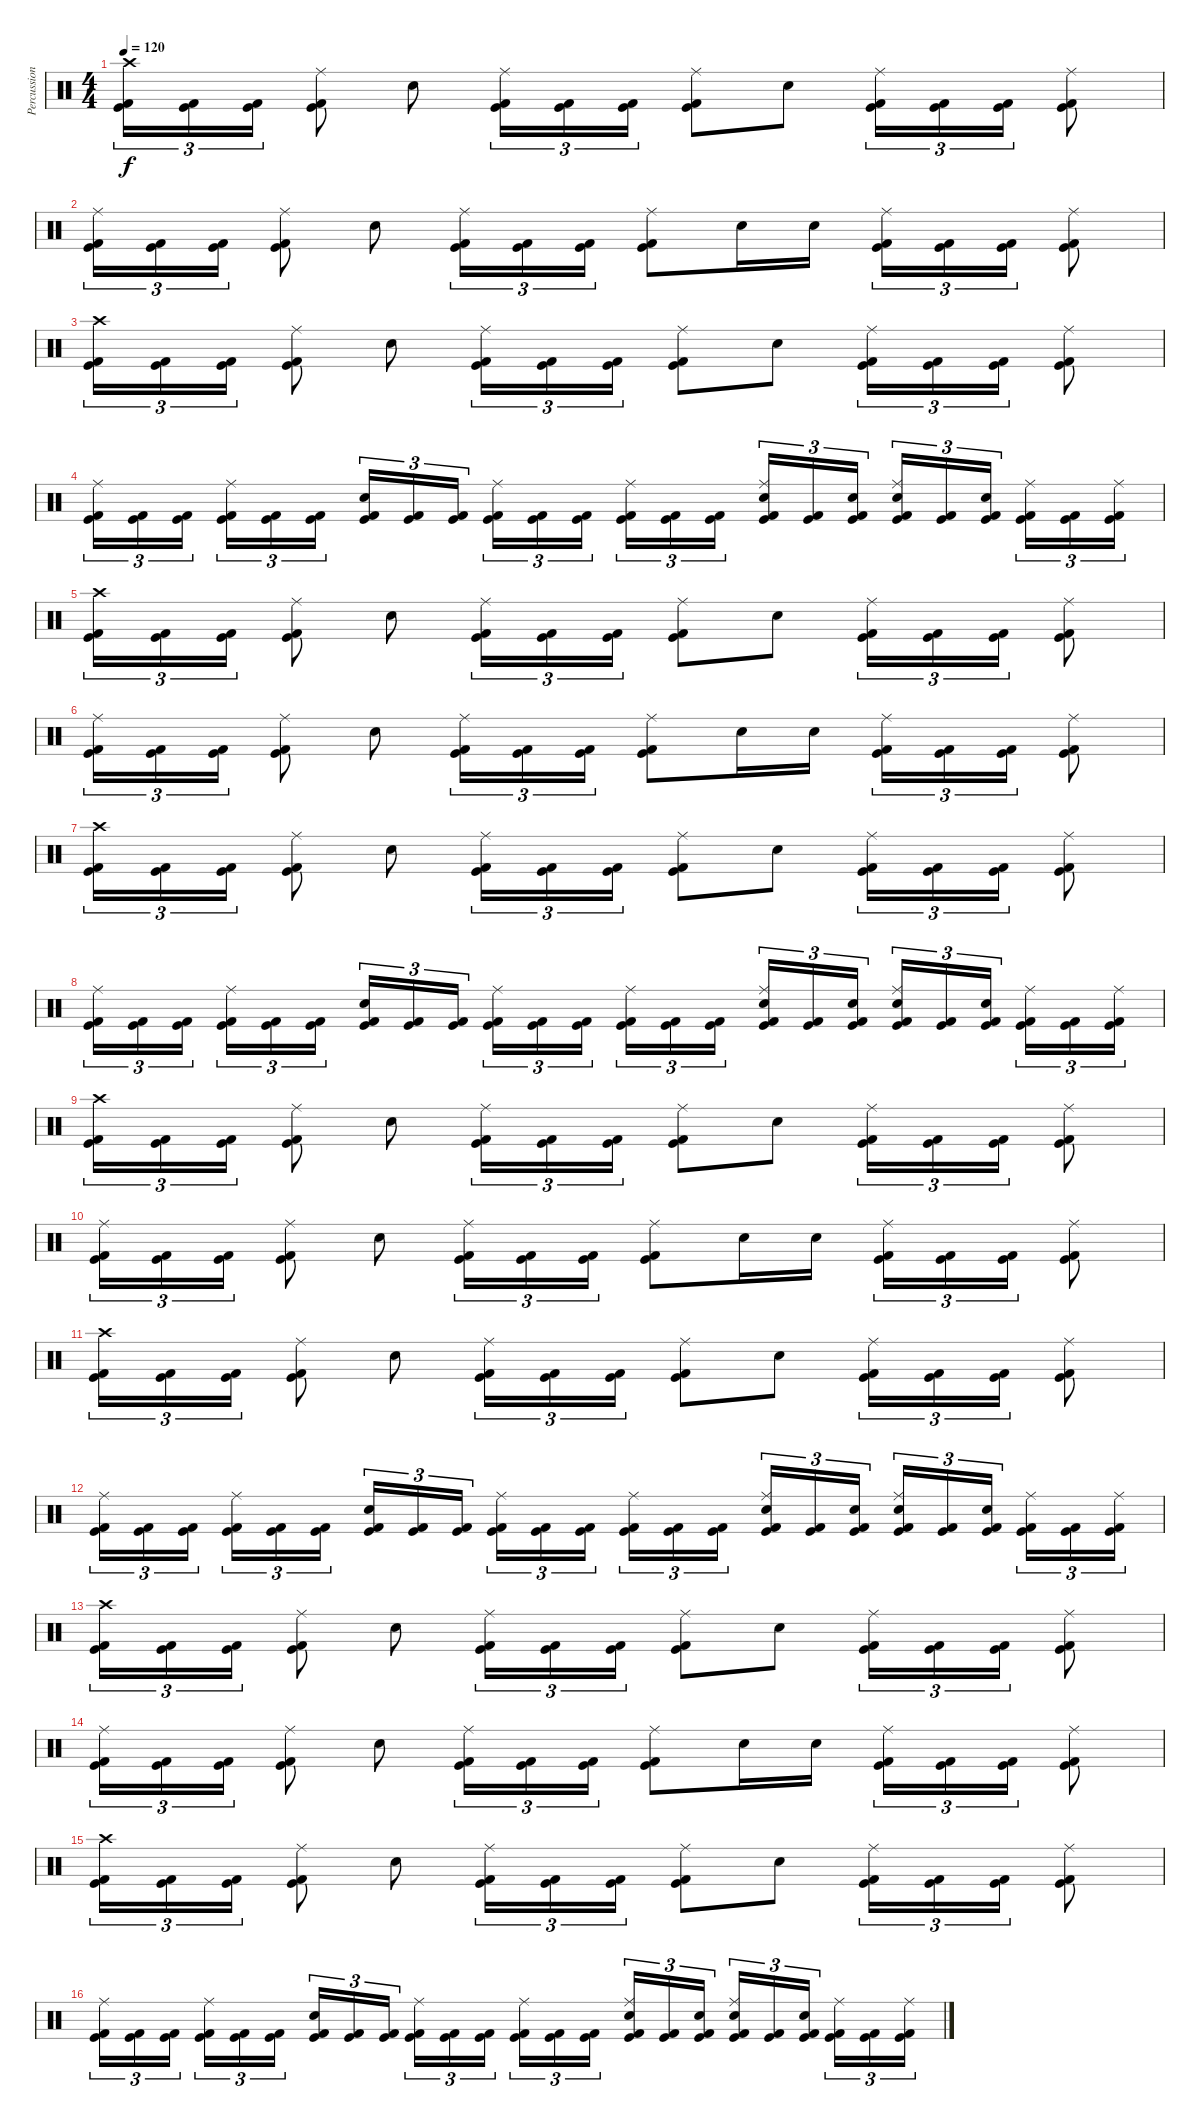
\track ("Percussion" "Percussion") {instrument percussion}
\staff {score}
\articulation defaults
\ts (4 4)
\tempo 120
\clef neutral
\ks c
("Crash high (hit)" "Kick (hit) 2" "Kick (hit)").16{tu (3 2) dy f} ("Kick (hit) 2" "Kick (hit)").16{tu (3 2)} ("Kick (hit) 2" "Kick (hit)").16{tu (3 2)} ("Ride (middle)" "Kick (hit) 2" "Kick (hit)").8 "Snare (hit) 2".8 ("Ride (middle)" "Kick (hit) 2" "Kick (hit)").16{tu (3 2)} ("Kick (hit) 2" "Kick (hit)").16{tu (3 2)} ("Kick (hit) 2" "Kick (hit)").16{tu (3 2)} ("Ride (middle)" "Kick (hit) 2" "Kick (hit)").8 "Snare (hit) 2".8 ("Ride (middle)" "Kick (hit) 2" "Kick (hit)").16{tu (3 2)} ("Kick (hit) 2" "Kick (hit)").16{tu (3 2)} ("Kick (hit) 2" "Kick (hit)").16{tu (3 2)} ("Ride (middle)" "Kick (hit) 2" "Kick (hit)").8 |
("Ride (middle)" "Kick (hit) 2" "Kick (hit)").16{tu (3 2)} ("Kick (hit) 2" "Kick (hit)").16{tu (3 2)} ("Kick (hit) 2" "Kick (hit)").16{tu (3 2)} ("Ride (middle)" "Kick (hit) 2" "Kick (hit)").8 "Snare (hit) 2".8 ("Ride (middle)" "Kick (hit) 2" "Kick (hit)").16{tu (3 2)} ("Kick (hit) 2" "Kick (hit)").16{tu (3 2)} ("Kick (hit) 2" "Kick (hit)").16{tu (3 2)} ("Ride (middle)" "Kick (hit) 2" "Kick (hit)").8 "Snare (hit) 2".16 "Snare (hit) 2".16 ("Ride (middle)" "Kick (hit) 2" "Kick (hit)").16{tu (3 2)} ("Kick (hit) 2" "Kick (hit)").16{tu (3 2)} ("Kick (hit) 2" "Kick (hit)").16{tu (3 2)} ("Ride (middle)" "Kick (hit) 2" "Kick (hit)").8 |
("Crash high (hit)" "Kick (hit) 2" "Kick (hit)").16{tu (3 2)} ("Kick (hit) 2" "Kick (hit)").16{tu (3 2)} ("Kick (hit) 2" "Kick (hit)").16{tu (3 2)} ("Ride (middle)" "Kick (hit) 2" "Kick (hit)").8 "Snare (hit) 2".8 ("Ride (middle)" "Kick (hit) 2" "Kick (hit)").16{tu (3 2)} ("Kick (hit) 2" "Kick (hit)").16{tu (3 2)} ("Kick (hit) 2" "Kick (hit)").16{tu (3 2)} ("Ride (middle)" "Kick (hit) 2" "Kick (hit)").8 "Snare (hit) 2".8 ("Ride (middle)" "Kick (hit) 2" "Kick (hit)").16{tu (3 2)} ("Kick (hit) 2" "Kick (hit)").16{tu (3 2)} ("Kick (hit) 2" "Kick (hit)").16{tu (3 2)} ("Ride (middle)" "Kick (hit) 2" "Kick (hit)").8 |
("Ride (middle)" "Kick (hit) 2" "Kick (hit)").16{tu (3 2)} ("Kick (hit) 2" "Kick (hit)").16{tu (3 2)} ("Kick (hit) 2" "Kick (hit)").16{tu (3 2)} ("Ride (middle)" "Kick (hit) 2" "Kick (hit)").16{tu (3 2)} ("Kick (hit) 2" "Kick (hit)").16{tu (3 2)} ("Kick (hit) 2" "Kick (hit)").16{tu (3 2)} ("Snare (hit) 2" "Kick (hit) 2" "Kick (hit)").16{tu (3 2)} ("Kick (hit) 2" "Kick (hit)").16{tu (3 2)} ("Kick (hit) 2" "Kick (hit)").16{tu (3 2)} ("Ride (middle)" "Kick (hit) 2" "Kick (hit)").16{tu (3 2)} ("Kick (hit) 2" "Kick (hit)").16{tu (3 2)} ("Kick (hit) 2" "Kick (hit)").16{tu (3 2)} ("Ride (middle)" "Kick (hit) 2" "Kick (hit)").16{tu (3 2)} ("Kick (hit) 2" "Kick (hit)").16{tu (3 2)} ("Kick (hit) 2" "Kick (hit)").16{tu (3 2)} ("Ride (middle)" "Snare (hit) 2" "Kick (hit) 2" "Kick (hit)").16{tu (3 2)} ("Kick (hit) 2" "Kick (hit)").16{tu (3 2)} ("Snare (hit) 2" "Kick (hit) 2" "Kick (hit)").16{tu (3 2)} ("Ride (middle)" "Snare (hit) 2" "Kick (hit) 2" "Kick (hit)").16{tu (3 2)} ("Kick (hit) 2" "Kick (hit)").16{tu (3 2)} ("Snare (hit) 2" "Kick (hit) 2" "Kick (hit)").16{tu (3 2)} ("Ride (middle)" "Kick (hit) 2" "Kick (hit)").16{tu (3 2)} ("Kick (hit) 2" "Kick (hit)").16{tu (3 2)} ("Ride (middle)" "Kick (hit) 2" "Kick (hit)").16{tu (3 2)} |
("Crash high (hit)" "Kick (hit) 2" "Kick (hit)").16{tu (3 2)} ("Kick (hit) 2" "Kick (hit)").16{tu (3 2)} ("Kick (hit) 2" "Kick (hit)").16{tu (3 2)} ("Ride (middle)" "Kick (hit) 2" "Kick (hit)").8 "Snare (hit) 2".8 ("Ride (middle)" "Kick (hit) 2" "Kick (hit)").16{tu (3 2)} ("Kick (hit) 2" "Kick (hit)").16{tu (3 2)} ("Kick (hit) 2" "Kick (hit)").16{tu (3 2)} ("Ride (middle)" "Kick (hit) 2" "Kick (hit)").8 "Snare (hit) 2".8 ("Ride (middle)" "Kick (hit) 2" "Kick (hit)").16{tu (3 2)} ("Kick (hit) 2" "Kick (hit)").16{tu (3 2)} ("Kick (hit) 2" "Kick (hit)").16{tu (3 2)} ("Ride (middle)" "Kick (hit) 2" "Kick (hit)").8 |
("Ride (middle)" "Kick (hit) 2" "Kick (hit)").16{tu (3 2)} ("Kick (hit) 2" "Kick (hit)").16{tu (3 2)} ("Kick (hit) 2" "Kick (hit)").16{tu (3 2)} ("Ride (middle)" "Kick (hit) 2" "Kick (hit)").8 "Snare (hit) 2".8 ("Ride (middle)" "Kick (hit) 2" "Kick (hit)").16{tu (3 2)} ("Kick (hit) 2" "Kick (hit)").16{tu (3 2)} ("Kick (hit) 2" "Kick (hit)").16{tu (3 2)} ("Ride (middle)" "Kick (hit) 2" "Kick (hit)").8 "Snare (hit) 2".16 "Snare (hit) 2".16 ("Ride (middle)" "Kick (hit) 2" "Kick (hit)").16{tu (3 2)} ("Kick (hit) 2" "Kick (hit)").16{tu (3 2)} ("Kick (hit) 2" "Kick (hit)").16{tu (3 2)} ("Ride (middle)" "Kick (hit) 2" "Kick (hit)").8 |
("Crash high (hit)" "Kick (hit) 2" "Kick (hit)").16{tu (3 2)} ("Kick (hit) 2" "Kick (hit)").16{tu (3 2)} ("Kick (hit) 2" "Kick (hit)").16{tu (3 2)} ("Ride (middle)" "Kick (hit) 2" "Kick (hit)").8 "Snare (hit) 2".8 ("Ride (middle)" "Kick (hit) 2" "Kick (hit)").16{tu (3 2)} ("Kick (hit) 2" "Kick (hit)").16{tu (3 2)} ("Kick (hit) 2" "Kick (hit)").16{tu (3 2)} ("Ride (middle)" "Kick (hit) 2" "Kick (hit)").8 "Snare (hit) 2".8 ("Ride (middle)" "Kick (hit) 2" "Kick (hit)").16{tu (3 2)} ("Kick (hit) 2" "Kick (hit)").16{tu (3 2)} ("Kick (hit) 2" "Kick (hit)").16{tu (3 2)} ("Ride (middle)" "Kick (hit) 2" "Kick (hit)").8 |
("Ride (middle)" "Kick (hit) 2" "Kick (hit)").16{tu (3 2)} ("Kick (hit) 2" "Kick (hit)").16{tu (3 2)} ("Kick (hit) 2" "Kick (hit)").16{tu (3 2)} ("Ride (middle)" "Kick (hit) 2" "Kick (hit)").16{tu (3 2)} ("Kick (hit) 2" "Kick (hit)").16{tu (3 2)} ("Kick (hit) 2" "Kick (hit)").16{tu (3 2)} ("Snare (hit) 2" "Kick (hit) 2" "Kick (hit)").16{tu (3 2)} ("Kick (hit) 2" "Kick (hit)").16{tu (3 2)} ("Kick (hit) 2" "Kick (hit)").16{tu (3 2)} ("Ride (middle)" "Kick (hit) 2" "Kick (hit)").16{tu (3 2)} ("Kick (hit) 2" "Kick (hit)").16{tu (3 2)} ("Kick (hit) 2" "Kick (hit)").16{tu (3 2)} ("Ride (middle)" "Kick (hit) 2" "Kick (hit)").16{tu (3 2)} ("Kick (hit) 2" "Kick (hit)").16{tu (3 2)} ("Kick (hit) 2" "Kick (hit)").16{tu (3 2)} ("Ride (middle)" "Snare (hit) 2" "Kick (hit) 2" "Kick (hit)").16{tu (3 2)} ("Kick (hit) 2" "Kick (hit)").16{tu (3 2)} ("Snare (hit) 2" "Kick (hit) 2" "Kick (hit)").16{tu (3 2)} ("Ride (middle)" "Snare (hit) 2" "Kick (hit) 2" "Kick (hit)").16{tu (3 2)} ("Kick (hit) 2" "Kick (hit)").16{tu (3 2)} ("Snare (hit) 2" "Kick (hit) 2" "Kick (hit)").16{tu (3 2)} ("Ride (middle)" "Kick (hit) 2" "Kick (hit)").16{tu (3 2)} ("Kick (hit) 2" "Kick (hit)").16{tu (3 2)} ("Ride (middle)" "Kick (hit) 2" "Kick (hit)").16{tu (3 2)} |
("Crash high (hit)" "Kick (hit) 2" "Kick (hit)").16{tu (3 2)} ("Kick (hit) 2" "Kick (hit)").16{tu (3 2)} ("Kick (hit) 2" "Kick (hit)").16{tu (3 2)} ("Ride (middle)" "Kick (hit) 2" "Kick (hit)").8 "Snare (hit) 2".8 ("Ride (middle)" "Kick (hit) 2" "Kick (hit)").16{tu (3 2)} ("Kick (hit) 2" "Kick (hit)").16{tu (3 2)} ("Kick (hit) 2" "Kick (hit)").16{tu (3 2)} ("Ride (middle)" "Kick (hit) 2" "Kick (hit)").8 "Snare (hit) 2".8 ("Ride (middle)" "Kick (hit) 2" "Kick (hit)").16{tu (3 2)} ("Kick (hit) 2" "Kick (hit)").16{tu (3 2)} ("Kick (hit) 2" "Kick (hit)").16{tu (3 2)} ("Ride (middle)" "Kick (hit) 2" "Kick (hit)").8 |
("Ride (middle)" "Kick (hit) 2" "Kick (hit)").16{tu (3 2)} ("Kick (hit) 2" "Kick (hit)").16{tu (3 2)} ("Kick (hit) 2" "Kick (hit)").16{tu (3 2)} ("Ride (middle)" "Kick (hit) 2" "Kick (hit)").8 "Snare (hit) 2".8 ("Ride (middle)" "Kick (hit) 2" "Kick (hit)").16{tu (3 2)} ("Kick (hit) 2" "Kick (hit)").16{tu (3 2)} ("Kick (hit) 2" "Kick (hit)").16{tu (3 2)} ("Ride (middle)" "Kick (hit) 2" "Kick (hit)").8 "Snare (hit) 2".16 "Snare (hit) 2".16 ("Ride (middle)" "Kick (hit) 2" "Kick (hit)").16{tu (3 2)} ("Kick (hit) 2" "Kick (hit)").16{tu (3 2)} ("Kick (hit) 2" "Kick (hit)").16{tu (3 2)} ("Ride (middle)" "Kick (hit) 2" "Kick (hit)").8 |
("Crash high (hit)" "Kick (hit) 2" "Kick (hit)").16{tu (3 2)} ("Kick (hit) 2" "Kick (hit)").16{tu (3 2)} ("Kick (hit) 2" "Kick (hit)").16{tu (3 2)} ("Ride (middle)" "Kick (hit) 2" "Kick (hit)").8 "Snare (hit) 2".8 ("Ride (middle)" "Kick (hit) 2" "Kick (hit)").16{tu (3 2)} ("Kick (hit) 2" "Kick (hit)").16{tu (3 2)} ("Kick (hit) 2" "Kick (hit)").16{tu (3 2)} ("Ride (middle)" "Kick (hit) 2" "Kick (hit)").8 "Snare (hit) 2".8 ("Ride (middle)" "Kick (hit) 2" "Kick (hit)").16{tu (3 2)} ("Kick (hit) 2" "Kick (hit)").16{tu (3 2)} ("Kick (hit) 2" "Kick (hit)").16{tu (3 2)} ("Ride (middle)" "Kick (hit) 2" "Kick (hit)").8 |
("Ride (middle)" "Kick (hit) 2" "Kick (hit)").16{tu (3 2)} ("Kick (hit) 2" "Kick (hit)").16{tu (3 2)} ("Kick (hit) 2" "Kick (hit)").16{tu (3 2)} ("Ride (middle)" "Kick (hit) 2" "Kick (hit)").16{tu (3 2)} ("Kick (hit) 2" "Kick (hit)").16{tu (3 2)} ("Kick (hit) 2" "Kick (hit)").16{tu (3 2)} ("Snare (hit) 2" "Kick (hit) 2" "Kick (hit)").16{tu (3 2)} ("Kick (hit) 2" "Kick (hit)").16{tu (3 2)} ("Kick (hit) 2" "Kick (hit)").16{tu (3 2)} ("Ride (middle)" "Kick (hit) 2" "Kick (hit)").16{tu (3 2)} ("Kick (hit) 2" "Kick (hit)").16{tu (3 2)} ("Kick (hit) 2" "Kick (hit)").16{tu (3 2)} ("Ride (middle)" "Kick (hit) 2" "Kick (hit)").16{tu (3 2)} ("Kick (hit) 2" "Kick (hit)").16{tu (3 2)} ("Kick (hit) 2" "Kick (hit)").16{tu (3 2)} ("Ride (middle)" "Snare (hit) 2" "Kick (hit) 2" "Kick (hit)").16{tu (3 2)} ("Kick (hit) 2" "Kick (hit)").16{tu (3 2)} ("Snare (hit) 2" "Kick (hit) 2" "Kick (hit)").16{tu (3 2)} ("Ride (middle)" "Snare (hit) 2" "Kick (hit) 2" "Kick (hit)").16{tu (3 2)} ("Kick (hit) 2" "Kick (hit)").16{tu (3 2)} ("Snare (hit) 2" "Kick (hit) 2" "Kick (hit)").16{tu (3 2)} ("Ride (middle)" "Kick (hit) 2" "Kick (hit)").16{tu (3 2)} ("Kick (hit) 2" "Kick (hit)").16{tu (3 2)} ("Ride (middle)" "Kick (hit) 2" "Kick (hit)").16{tu (3 2)} |
("Crash high (hit)" "Kick (hit) 2" "Kick (hit)").16{tu (3 2)} ("Kick (hit) 2" "Kick (hit)").16{tu (3 2)} ("Kick (hit) 2" "Kick (hit)").16{tu (3 2)} ("Ride (middle)" "Kick (hit) 2" "Kick (hit)").8 "Snare (hit) 2".8 ("Ride (middle)" "Kick (hit) 2" "Kick (hit)").16{tu (3 2)} ("Kick (hit) 2" "Kick (hit)").16{tu (3 2)} ("Kick (hit) 2" "Kick (hit)").16{tu (3 2)} ("Ride (middle)" "Kick (hit) 2" "Kick (hit)").8 "Snare (hit) 2".8 ("Ride (middle)" "Kick (hit) 2" "Kick (hit)").16{tu (3 2)} ("Kick (hit) 2" "Kick (hit)").16{tu (3 2)} ("Kick (hit) 2" "Kick (hit)").16{tu (3 2)} ("Ride (middle)" "Kick (hit) 2" "Kick (hit)").8 |
("Ride (middle)" "Kick (hit) 2" "Kick (hit)").16{tu (3 2)} ("Kick (hit) 2" "Kick (hit)").16{tu (3 2)} ("Kick (hit) 2" "Kick (hit)").16{tu (3 2)} ("Ride (middle)" "Kick (hit) 2" "Kick (hit)").8 "Snare (hit) 2".8 ("Ride (middle)" "Kick (hit) 2" "Kick (hit)").16{tu (3 2)} ("Kick (hit) 2" "Kick (hit)").16{tu (3 2)} ("Kick (hit) 2" "Kick (hit)").16{tu (3 2)} ("Ride (middle)" "Kick (hit) 2" "Kick (hit)").8 "Snare (hit) 2".16 "Snare (hit) 2".16 ("Ride (middle)" "Kick (hit) 2" "Kick (hit)").16{tu (3 2)} ("Kick (hit) 2" "Kick (hit)").16{tu (3 2)} ("Kick (hit) 2" "Kick (hit)").16{tu (3 2)} ("Ride (middle)" "Kick (hit) 2" "Kick (hit)").8 |
("Crash high (hit)" "Kick (hit) 2" "Kick (hit)").16{tu (3 2)} ("Kick (hit) 2" "Kick (hit)").16{tu (3 2)} ("Kick (hit) 2" "Kick (hit)").16{tu (3 2)} ("Ride (middle)" "Kick (hit) 2" "Kick (hit)").8 "Snare (hit) 2".8 ("Ride (middle)" "Kick (hit) 2" "Kick (hit)").16{tu (3 2)} ("Kick (hit) 2" "Kick (hit)").16{tu (3 2)} ("Kick (hit) 2" "Kick (hit)").16{tu (3 2)} ("Ride (middle)" "Kick (hit) 2" "Kick (hit)").8 "Snare (hit) 2".8 ("Ride (middle)" "Kick (hit) 2" "Kick (hit)").16{tu (3 2)} ("Kick (hit) 2" "Kick (hit)").16{tu (3 2)} ("Kick (hit) 2" "Kick (hit)").16{tu (3 2)} ("Ride (middle)" "Kick (hit) 2" "Kick (hit)").8 |
("Ride (middle)" "Kick (hit) 2" "Kick (hit)").16{tu (3 2)} ("Kick (hit) 2" "Kick (hit)").16{tu (3 2)} ("Kick (hit) 2" "Kick (hit)").16{tu (3 2)} ("Ride (middle)" "Kick (hit) 2" "Kick (hit)").16{tu (3 2)} ("Kick (hit) 2" "Kick (hit)").16{tu (3 2)} ("Kick (hit) 2" "Kick (hit)").16{tu (3 2)} ("Snare (hit) 2" "Kick (hit) 2" "Kick (hit)").16{tu (3 2)} ("Kick (hit) 2" "Kick (hit)").16{tu (3 2)} ("Kick (hit) 2" "Kick (hit)").16{tu (3 2)} ("Ride (middle)" "Kick (hit) 2" "Kick (hit)").16{tu (3 2)} ("Kick (hit) 2" "Kick (hit)").16{tu (3 2)} ("Kick (hit) 2" "Kick (hit)").16{tu (3 2)} ("Ride (middle)" "Kick (hit) 2" "Kick (hit)").16{tu (3 2)} ("Kick (hit) 2" "Kick (hit)").16{tu (3 2)} ("Kick (hit) 2" "Kick (hit)").16{tu (3 2)} ("Ride (middle)" "Snare (hit) 2" "Kick (hit) 2" "Kick (hit)").16{tu (3 2)} ("Kick (hit) 2" "Kick (hit)").16{tu (3 2)} ("Snare (hit) 2" "Kick (hit) 2" "Kick (hit)").16{tu (3 2)} ("Ride (middle)" "Snare (hit) 2" "Kick (hit) 2" "Kick (hit)").16{tu (3 2)} ("Kick (hit) 2" "Kick (hit)").16{tu (3 2)} ("Snare (hit) 2" "Kick (hit) 2" "Kick (hit)").16{tu (3 2)} ("Ride (middle)" "Kick (hit) 2" "Kick (hit)").16{tu (3 2)} ("Kick (hit) 2" "Kick (hit)").16{tu (3 2)} ("Ride (middle)" "Kick (hit) 2" "Kick (hit)").16{tu (3 2)}
